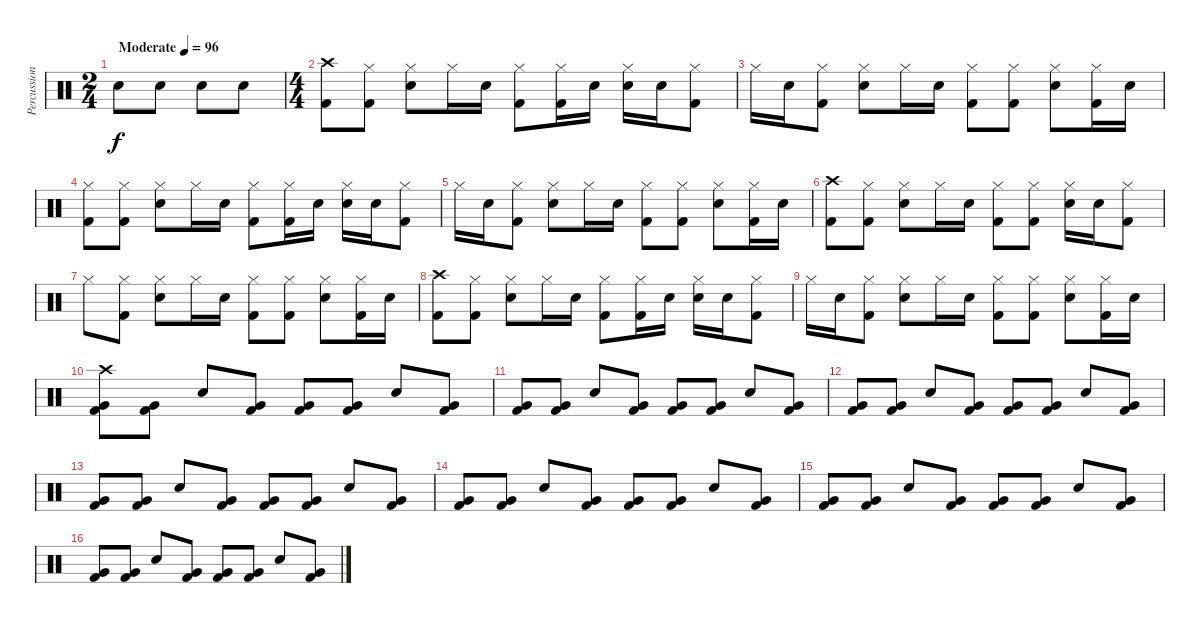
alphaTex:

\track ("Percussion" "Percussion") {instrument percussion}
\staff {score}
\articulation defaults
\ts (2 4)
\tempo (96 "Moderate")
\clef neutral
\ks c "Electric Snare (hit)".8{dy f} "Electric Snare (hit)".8 "Electric Snare (hit)".8 "Electric Snare (hit)".8
|
\ts (4 4)
("Crash high (hit)" "Kick (hit) 2").8 ("Hi-Hat (closed)" "Kick (hit) 2").8 ("Hi-Hat (closed)" "Electric Snare (hit)").8 "Hi-Hat (closed)".16 "Electric Snare (hit)".16 ("Hi-Hat (closed)" "Kick (hit) 2").8 ("Hi-Hat (closed)" "Kick (hit) 2").16 "Electric Snare (hit)".16 ("Hi-Hat (closed)" "Electric Snare (hit)").16 "Electric Snare (hit)".16 ("Hi-Hat (closed)" "Kick (hit) 2").8 |
"Hi-Hat (closed)".16 "Electric Snare (hit)".16 ("Hi-Hat (closed)" "Kick (hit) 2").8 ("Hi-Hat (closed)" "Electric Snare (hit)").8 "Hi-Hat (closed)".16 "Electric Snare (hit)".16 ("Hi-Hat (closed)" "Kick (hit) 2").8 ("Hi-Hat (closed)" "Kick (hit) 2").8 ("Hi-Hat (closed)" "Electric Snare (hit)").8 ("Hi-Hat (closed)" "Kick (hit) 2").16 "Electric Snare (hit)".16 |
("Hi-Hat (closed)" "Kick (hit) 2").8 ("Hi-Hat (closed)" "Kick (hit) 2").8 ("Hi-Hat (closed)" "Electric Snare (hit)").8 "Hi-Hat (closed)".16 "Electric Snare (hit)".16 ("Hi-Hat (closed)" "Kick (hit) 2").8 ("Hi-Hat (closed)" "Kick (hit) 2").16 "Electric Snare (hit)".16 ("Hi-Hat (closed)" "Electric Snare (hit)").16 "Electric Snare (hit)".16 ("Hi-Hat (closed)" "Kick (hit) 2").8 |
"Hi-Hat (closed)".16 "Electric Snare (hit)".16 ("Hi-Hat (closed)" "Kick (hit) 2").8 ("Hi-Hat (closed)" "Electric Snare (hit)").8 "Hi-Hat (closed)".16 "Electric Snare (hit)".16 ("Hi-Hat (closed)" "Kick (hit) 2").8 ("Hi-Hat (closed)" "Kick (hit) 2").8 ("Hi-Hat (closed)" "Electric Snare (hit)").8 ("Hi-Hat (closed)" "Kick (hit) 2").16 "Electric Snare (hit)".16 |
("Crash high (hit)" "Kick (hit) 2").8 ("Hi-Hat (closed)" "Kick (hit) 2").8 ("Hi-Hat (closed)" "Electric Snare (hit)").8 "Hi-Hat (closed)".16 "Electric Snare (hit)".16 ("Hi-Hat (closed)" "Kick (hit) 2").8 ("Hi-Hat (closed)" "Kick (hit) 2").8 ("Hi-Hat (closed)" "Electric Snare (hit)").16 "Electric Snare (hit)".16 ("Hi-Hat (closed)" "Kick (hit) 2").8 |
"Hi-Hat (closed)".8 ("Hi-Hat (closed)" "Kick (hit) 2").8 ("Hi-Hat (closed)" "Electric Snare (hit)").8 "Hi-Hat (closed)".16 "Electric Snare (hit)".16 ("Hi-Hat (closed)" "Kick (hit) 2").8 ("Hi-Hat (closed)" "Kick (hit) 2").8 ("Hi-Hat (closed)" "Electric Snare (hit)").8 ("Hi-Hat (closed)" "Kick (hit) 2").16 "Electric Snare (hit)".16 |
("Crash high (hit)" "Kick (hit) 2").8 ("Hi-Hat (closed)" "Kick (hit) 2").8 ("Hi-Hat (closed)" "Electric Snare (hit)").8 "Hi-Hat (closed)".16 "Electric Snare (hit)".16 ("Hi-Hat (closed)" "Kick (hit) 2").8 ("Hi-Hat (closed)" "Kick (hit) 2").16 "Electric Snare (hit)".16 ("Hi-Hat (closed)" "Electric Snare (hit)").16 "Electric Snare (hit)".16 ("Hi-Hat (closed)" "Kick (hit) 2").8 |
"Hi-Hat (closed)".16 "Electric Snare (hit)".16 ("Hi-Hat (closed)" "Kick (hit) 2").8 ("Hi-Hat (closed)" "Electric Snare (hit)").8 "Hi-Hat (closed)".16 "Electric Snare (hit)".16 ("Hi-Hat (closed)" "Kick (hit) 2").8 ("Hi-Hat (closed)" "Kick (hit) 2").8 ("Hi-Hat (closed)" "Electric Snare (hit)").8 ("Hi-Hat (closed)" "Kick (hit) 2").16 "Electric Snare (hit)".16 |
("Crash high (hit)" "Very Low Tom (hit)" "Kick (hit) 2").8 ("Very Low Tom (hit)" "Kick (hit) 2").8 "Electric Snare (hit)".8 ("Very Low Tom (hit)" "Kick (hit) 2").8 ("Very Low Tom (hit)" "Kick (hit) 2").8 ("Very Low Tom (hit)" "Kick (hit) 2").8 "Electric Snare (hit)".8 ("Very Low Tom (hit)" "Kick (hit) 2").8 |
("Very Low Tom (hit)" "Kick (hit) 2").8 ("Very Low Tom (hit)" "Kick (hit) 2").8 "Electric Snare (hit)".8 ("Very Low Tom (hit)" "Kick (hit) 2").8 ("Very Low Tom (hit)" "Kick (hit) 2").8 ("Very Low Tom (hit)" "Kick (hit) 2").8 "Electric Snare (hit)".8 ("Very Low Tom (hit)" "Kick (hit) 2").8 |
("Very Low Tom (hit)" "Kick (hit) 2").8 ("Very Low Tom (hit)" "Kick (hit) 2").8 "Electric Snare (hit)".8 ("Very Low Tom (hit)" "Kick (hit) 2").8 ("Very Low Tom (hit)" "Kick (hit) 2").8 ("Very Low Tom (hit)" "Kick (hit) 2").8 "Electric Snare (hit)".8 ("Very Low Tom (hit)" "Kick (hit) 2").8 |
("Very Low Tom (hit)" "Kick (hit) 2").8 ("Very Low Tom (hit)" "Kick (hit) 2").8 "Electric Snare (hit)".8 ("Very Low Tom (hit)" "Kick (hit) 2").8 ("Very Low Tom (hit)" "Kick (hit) 2").8 ("Very Low Tom (hit)" "Kick (hit) 2").8 "Electric Snare (hit)".8 ("Very Low Tom (hit)" "Kick (hit) 2").8 |
("Very Low Tom (hit)" "Kick (hit) 2").8 ("Very Low Tom (hit)" "Kick (hit) 2").8 "Electric Snare (hit)".8 ("Very Low Tom (hit)" "Kick (hit) 2").8 ("Very Low Tom (hit)" "Kick (hit) 2").8 ("Very Low Tom (hit)" "Kick (hit) 2").8 "Electric Snare (hit)".8 ("Very Low Tom (hit)" "Kick (hit) 2").8 |
("Very Low Tom (hit)" "Kick (hit) 2").8 ("Very Low Tom (hit)" "Kick (hit) 2").8 "Electric Snare (hit)".8 ("Very Low Tom (hit)" "Kick (hit) 2").8 ("Very Low Tom (hit)" "Kick (hit) 2").8 ("Very Low Tom (hit)" "Kick (hit) 2").8 "Electric Snare (hit)".8 ("Very Low Tom (hit)" "Kick (hit) 2").8 |
("Very Low Tom (hit)" "Kick (hit) 2").8 ("Very Low Tom (hit)" "Kick (hit) 2").8 "Electric Snare (hit)".8 ("Very Low Tom (hit)" "Kick (hit) 2").8 ("Very Low Tom (hit)" "Kick (hit) 2").8 ("Very Low Tom (hit)" "Kick (hit) 2").8 "Electric Snare (hit)".8 ("Very Low Tom (hit)" "Kick (hit) 2").8
